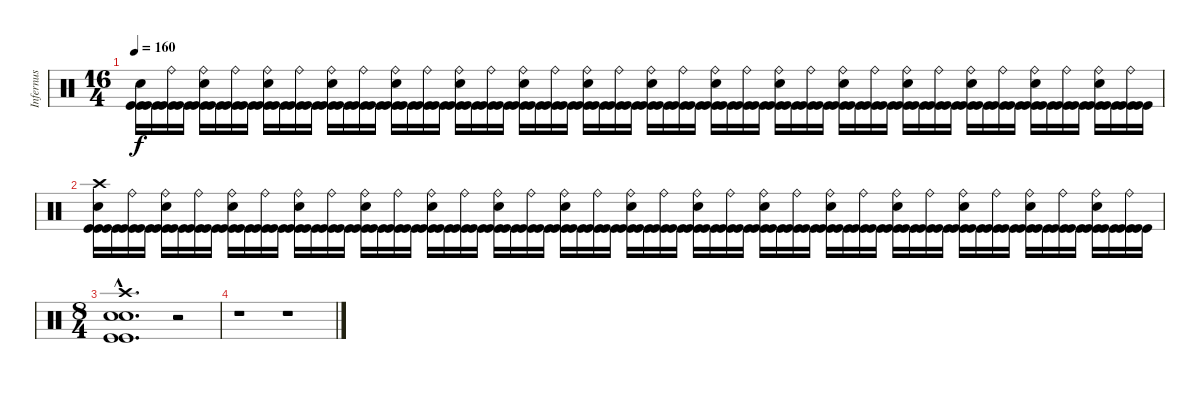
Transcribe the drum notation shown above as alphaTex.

\track ("Infernus" "Infernus") {instrument percussion}
\staff {score}
\articulation defaults
\ts (16 4)
\tempo 160
\clef neutral
\ks c
("Snare (hit) 2" "Kick (hit)" "Kick (hit)").16{dy f} ("Kick (hit)" "Kick (hit)").16 ("Ride (bell)" "Kick (hit)" "Kick (hit)").16 ("Kick (hit)" "Kick (hit)").16 ("Ride (bell)" "Snare (hit) 2" "Kick (hit)" "Kick (hit)").16 ("Kick (hit)" "Kick (hit)").16 ("Ride (bell)" "Kick (hit)" "Kick (hit)").16 ("Kick (hit)" "Kick (hit)").16 ("Ride (bell)" "Snare (hit) 2" "Kick (hit)" "Kick (hit)").16 ("Kick (hit)" "Kick (hit)").16 ("Ride (bell)" "Kick (hit)" "Kick (hit)").16 ("Kick (hit)" "Kick (hit)").16 ("Ride (bell)" "Snare (hit) 2" "Kick (hit)" "Kick (hit)").16 ("Kick (hit)" "Kick (hit)").16 ("Ride (bell)" "Kick (hit)" "Kick (hit)").16 ("Kick (hit)" "Kick (hit)").16 ("Ride (bell)" "Snare (hit) 2" "Kick (hit)" "Kick (hit)").16 ("Kick (hit)" "Kick (hit)").16 ("Ride (bell)" "Kick (hit)" "Kick (hit)").16 ("Kick (hit)" "Kick (hit)").16 ("Ride (bell)" "Snare (hit) 2" "Kick (hit)" "Kick (hit)").16 ("Kick (hit)" "Kick (hit)").16 ("Ride (bell)" "Kick (hit)" "Kick (hit)").16 ("Kick (hit)" "Kick (hit)").16 ("Ride (bell)" "Snare (hit) 2" "Kick (hit)" "Kick (hit)").16 ("Kick (hit)" "Kick (hit)").16 ("Ride (bell)" "Kick (hit)" "Kick (hit)").16 ("Kick (hit)" "Kick (hit)").16 ("Ride (bell)" "Snare (hit) 2" "Kick (hit)" "Kick (hit)").16 ("Kick (hit)" "Kick (hit)").16 ("Ride (bell)" "Kick (hit)" "Kick (hit)").16 ("Kick (hit)" "Kick (hit)").16 ("Ride (bell)" "Snare (hit) 2" "Kick (hit)" "Kick (hit)").16 ("Kick (hit)" "Kick (hit)").16 ("Ride (bell)" "Kick (hit)" "Kick (hit)").16 ("Kick (hit)" "Kick (hit)").16 ("Ride (bell)" "Snare (hit) 2" "Kick (hit)" "Kick (hit)").16 ("Kick (hit)" "Kick (hit)").16 ("Ride (bell)" "Kick (hit)" "Kick (hit)").16 ("Kick (hit)" "Kick (hit)").16 ("Ride (bell)" "Snare (hit) 2" "Kick (hit)" "Kick (hit)").16 ("Kick (hit)" "Kick (hit)").16 ("Ride (bell)" "Kick (hit)" "Kick (hit)").16 ("Kick (hit)" "Kick (hit)").16 ("Ride (bell)" "Snare (hit) 2" "Kick (hit)" "Kick (hit)").16 ("Kick (hit)" "Kick (hit)").16 ("Ride (bell)" "Kick (hit)" "Kick (hit)").16 ("Kick (hit)" "Kick (hit)").16 ("Ride (bell)" "Snare (hit) 2" "Kick (hit)" "Kick (hit)").16 ("Kick (hit)" "Kick (hit)").16 ("Ride (bell)" "Kick (hit)" "Kick (hit)").16 ("Kick (hit)" "Kick (hit)").16 ("Ride (bell)" "Snare (hit) 2" "Kick (hit)" "Kick (hit)").16 ("Kick (hit)" "Kick (hit)").16 ("Ride (bell)" "Kick (hit)" "Kick (hit)").16 ("Kick (hit)" "Kick (hit)").16 ("Ride (bell)" "Snare (hit) 2" "Kick (hit)" "Kick (hit)").16 ("Kick (hit)" "Kick (hit)").16 ("Ride (bell)" "Kick (hit)" "Kick (hit)").16 ("Kick (hit)" "Kick (hit)").16 ("Ride (bell)" "Snare (hit) 2" "Kick (hit)" "Kick (hit)").16 ("Kick (hit)" "Kick (hit)").16 ("Ride (bell)" "Kick (hit)" "Kick (hit)").16 ("Kick (hit)" "Kick (hit)").16 |
("Crash high (hit)" "Snare (hit) 2" "Kick (hit)" "Kick (hit)").16 ("Kick (hit)" "Kick (hit)").16 ("Ride (bell)" "Kick (hit)" "Kick (hit)").16 ("Kick (hit)" "Kick (hit)").16 ("Ride (bell)" "Snare (hit) 2" "Kick (hit)" "Kick (hit)").16 ("Kick (hit)" "Kick (hit)").16 ("Ride (bell)" "Kick (hit)" "Kick (hit)").16 ("Kick (hit)" "Kick (hit)").16 ("Ride (bell)" "Snare (hit) 2" "Kick (hit)" "Kick (hit)").16 ("Kick (hit)" "Kick (hit)").16 ("Ride (bell)" "Kick (hit)" "Kick (hit)").16 ("Kick (hit)" "Kick (hit)").16 ("Ride (bell)" "Snare (hit) 2" "Kick (hit)" "Kick (hit)").16 ("Kick (hit)" "Kick (hit)").16 ("Ride (bell)" "Kick (hit)" "Kick (hit)").16 ("Kick (hit)" "Kick (hit)").16 ("Ride (bell)" "Snare (hit) 2" "Kick (hit)" "Kick (hit)").16 ("Kick (hit)" "Kick (hit)").16 ("Ride (bell)" "Kick (hit)" "Kick (hit)").16 ("Kick (hit)" "Kick (hit)").16 ("Ride (bell)" "Snare (hit) 2" "Kick (hit)" "Kick (hit)").16 ("Kick (hit)" "Kick (hit)").16 ("Ride (bell)" "Kick (hit)" "Kick (hit)").16 ("Kick (hit)" "Kick (hit)").16 ("Ride (bell)" "Snare (hit) 2" "Kick (hit)" "Kick (hit)").16 ("Kick (hit)" "Kick (hit)").16 ("Ride (bell)" "Kick (hit)" "Kick (hit)").16 ("Kick (hit)" "Kick (hit)").16 ("Ride (bell)" "Snare (hit) 2" "Kick (hit)" "Kick (hit)").16 ("Kick (hit)" "Kick (hit)").16 ("Ride (bell)" "Kick (hit)" "Kick (hit)").16 ("Kick (hit)" "Kick (hit)").16 ("Ride (bell)" "Snare (hit) 2" "Kick (hit)" "Kick (hit)").16 ("Kick (hit)" "Kick (hit)").16 ("Ride (bell)" "Kick (hit)" "Kick (hit)").16 ("Kick (hit)" "Kick (hit)").16 ("Ride (bell)" "Snare (hit) 2" "Kick (hit)" "Kick (hit)").16 ("Kick (hit)" "Kick (hit)").16 ("Ride (bell)" "Kick (hit)" "Kick (hit)").16 ("Kick (hit)" "Kick (hit)").16 ("Ride (bell)" "Snare (hit) 2" "Kick (hit)" "Kick (hit)").16 ("Kick (hit)" "Kick (hit)").16 ("Ride (bell)" "Kick (hit)" "Kick (hit)").16 ("Kick (hit)" "Kick (hit)").16 ("Ride (bell)" "Snare (hit) 2" "Kick (hit)" "Kick (hit)").16 ("Kick (hit)" "Kick (hit)").16 ("Ride (bell)" "Kick (hit)" "Kick (hit)").16 ("Kick (hit)" "Kick (hit)").16 ("Ride (bell)" "Snare (hit) 2" "Kick (hit)" "Kick (hit)").16 ("Kick (hit)" "Kick (hit)").16 ("Ride (bell)" "Kick (hit)" "Kick (hit)").16 ("Kick (hit)" "Kick (hit)").16 ("Ride (bell)" "Snare (hit) 2" "Kick (hit)" "Kick (hit)").16 ("Kick (hit)" "Kick (hit)").16 ("Ride (bell)" "Kick (hit)" "Kick (hit)").16 ("Kick (hit)" "Kick (hit)").16 ("Ride (bell)" "Snare (hit) 2" "Kick (hit)" "Kick (hit)").16 ("Kick (hit)" "Kick (hit)").16 ("Ride (bell)" "Kick (hit)" "Kick (hit)").16 ("Kick (hit)" "Kick (hit)").16 ("Ride (bell)" "Snare (hit) 2" "Kick (hit)" "Kick (hit)").16 ("Kick (hit)" "Kick (hit)").16 ("Ride (bell)" "Kick (hit)" "Kick (hit)").16 ("Kick (hit)" "Kick (hit)").16 |
\ts (8 4)
("Crash high (hit)"{hac} "Snare (hit) 2"{hac} "Snare (hit) 2"{hac} "Kick (hit)"{hac} "Kick (hit)"{hac}).1{d} r.2 |
r.1 r.1
